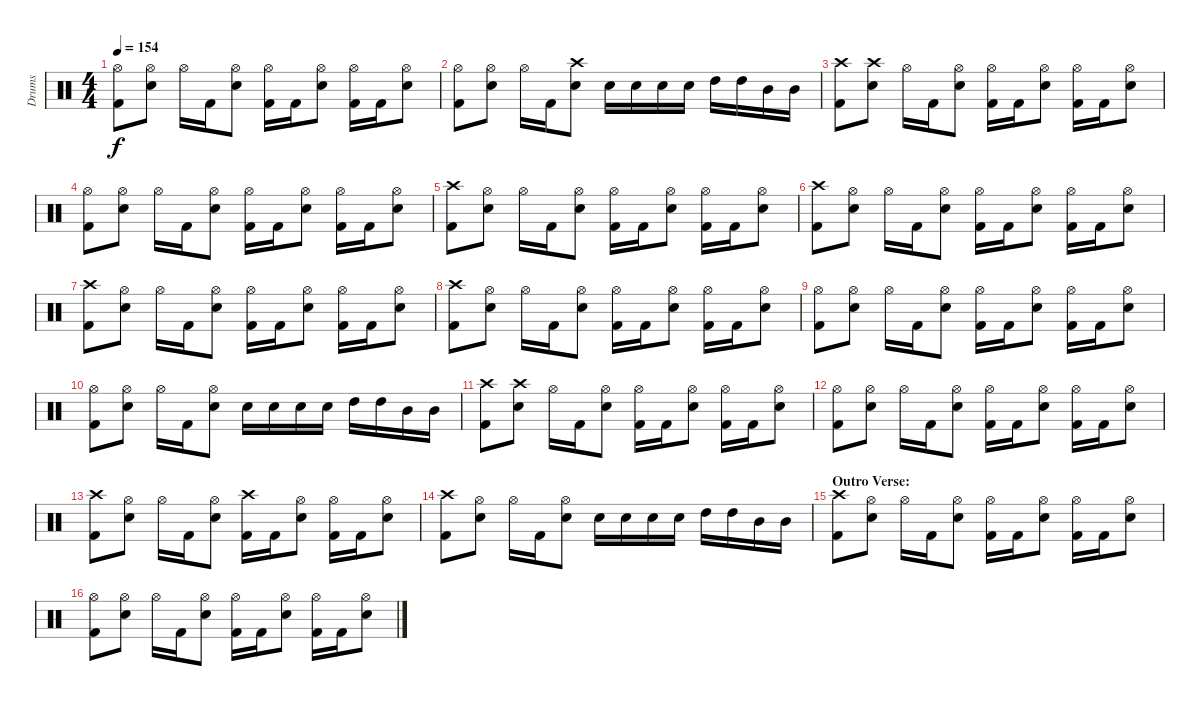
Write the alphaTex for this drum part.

\track ("Drums" "Drums") {instrument percussion}
\staff {score}
\articulation defaults
\ts (4 4)
\tempo 154
\clef neutral
\ks c
("Hi-Hat (open)" "Kick (hit) 2").8{dy f} ("Hi-Hat (open)" "Snare (hit) 2").8 "Hi-Hat (open)".16 "Kick (hit) 2".16 ("Hi-Hat (open)" "Snare (hit) 2").8 ("Hi-Hat (open)" "Kick (hit) 2").16 "Kick (hit) 2".16 ("Hi-Hat (open)" "Snare (hit) 2").8 ("Hi-Hat (open)" "Kick (hit) 2").16 "Kick (hit) 2".16 ("Hi-Hat (open)" "Snare (hit) 2").8 |
("Hi-Hat (open)" "Kick (hit) 2").8 ("Hi-Hat (open)" "Snare (hit) 2").8 "Hi-Hat (open)".16 "Kick (hit) 2".16 ("Crash high (hit)" "Snare (hit) 2").8 "Snare (hit) 2".16 "Snare (hit) 2".16 "Snare (hit) 2".16 "Snare (hit) 2".16 "High Tom (hit)".16 "High Tom (hit)".16 "Mid Tom (hit)".16 "Mid Tom (hit)".16 |
("Crash high (hit)" "Kick (hit) 2").8 ("Crash high (hit)" "Snare (hit) 2").8 "Hi-Hat (open)".16 "Kick (hit) 2".16 ("Hi-Hat (open)" "Snare (hit) 2").8 ("Hi-Hat (open)" "Kick (hit) 2").16 "Kick (hit) 2".16 ("Hi-Hat (open)" "Snare (hit) 2").8 ("Hi-Hat (open)" "Kick (hit) 2").16 "Kick (hit) 2".16 ("Hi-Hat (open)" "Snare (hit) 2").8 |
("Hi-Hat (open)" "Kick (hit) 2").8 ("Hi-Hat (open)" "Snare (hit) 2").8 "Hi-Hat (open)".16 "Kick (hit) 2".16 ("Hi-Hat (open)" "Snare (hit) 2").8 ("Hi-Hat (open)" "Kick (hit) 2").16 "Kick (hit) 2".16 ("Hi-Hat (open)" "Snare (hit) 2").8 ("Hi-Hat (open)" "Kick (hit) 2").16 "Kick (hit) 2".16 ("Hi-Hat (open)" "Snare (hit) 2").8 |
("Crash high (hit)" "Kick (hit) 2").8 ("Hi-Hat (open)" "Snare (hit) 2").8 "Hi-Hat (open)".16 "Kick (hit) 2".16 ("Hi-Hat (open)" "Snare (hit) 2").8 ("Hi-Hat (open)" "Kick (hit) 2").16 "Kick (hit) 2".16 ("Hi-Hat (open)" "Snare (hit) 2").8 ("Hi-Hat (open)" "Kick (hit) 2").16 "Kick (hit) 2".16 ("Hi-Hat (open)" "Snare (hit) 2").8 |
("Crash high (hit)" "Kick (hit) 2").8 ("Hi-Hat (open)" "Snare (hit) 2").8 "Hi-Hat (open)".16 "Kick (hit) 2".16 ("Hi-Hat (open)" "Snare (hit) 2").8 ("Hi-Hat (open)" "Kick (hit) 2").16 "Kick (hit) 2".16 ("Hi-Hat (open)" "Snare (hit) 2").8 ("Hi-Hat (open)" "Kick (hit) 2").16 "Kick (hit) 2".16 ("Hi-Hat (open)" "Snare (hit) 2").8 |
("Crash high (hit)" "Kick (hit) 2").8 ("Hi-Hat (open)" "Snare (hit) 2").8 "Hi-Hat (open)".16 "Kick (hit) 2".16 ("Hi-Hat (open)" "Snare (hit) 2").8 ("Hi-Hat (open)" "Kick (hit) 2").16 "Kick (hit) 2".16 ("Hi-Hat (open)" "Snare (hit) 2").8 ("Hi-Hat (open)" "Kick (hit) 2").16 "Kick (hit) 2".16 ("Hi-Hat (open)" "Snare (hit) 2").8 |
("Crash high (hit)" "Kick (hit) 2").8 ("Hi-Hat (open)" "Snare (hit) 2").8 "Hi-Hat (open)".16 "Kick (hit) 2".16 ("Hi-Hat (open)" "Snare (hit) 2").8 ("Hi-Hat (open)" "Kick (hit) 2").16 "Kick (hit) 2".16 ("Hi-Hat (open)" "Snare (hit) 2").8 ("Hi-Hat (open)" "Kick (hit) 2").16 "Kick (hit) 2".16 ("Hi-Hat (open)" "Snare (hit) 2").8 |
("Hi-Hat (open)" "Kick (hit) 2").8 ("Hi-Hat (open)" "Snare (hit) 2").8 "Hi-Hat (open)".16 "Kick (hit) 2".16 ("Hi-Hat (open)" "Snare (hit) 2").8 ("Hi-Hat (open)" "Kick (hit) 2").16 "Kick (hit) 2".16 ("Hi-Hat (open)" "Snare (hit) 2").8 ("Hi-Hat (open)" "Kick (hit) 2").16 "Kick (hit) 2".16 ("Hi-Hat (open)" "Snare (hit) 2").8 |
("Hi-Hat (open)" "Kick (hit) 2").8 ("Hi-Hat (open)" "Snare (hit) 2").8 "Hi-Hat (open)".16 "Kick (hit) 2".16 ("Hi-Hat (open)" "Snare (hit) 2").8 "Snare (hit) 2".16 "Snare (hit) 2".16 "Snare (hit) 2".16 "Snare (hit) 2".16 "High Tom (hit)".16 "High Tom (hit)".16 "Mid Tom (hit)".16 "Mid Tom (hit)".16 |
("Crash high (hit)" "Kick (hit) 2").8 ("Crash high (hit)" "Snare (hit) 2").8 "Hi-Hat (open)".16 "Kick (hit) 2".16 ("Hi-Hat (open)" "Snare (hit) 2").8 ("Hi-Hat (open)" "Kick (hit) 2").16 "Kick (hit) 2".16 ("Hi-Hat (open)" "Snare (hit) 2").8 ("Hi-Hat (open)" "Kick (hit) 2").16 "Kick (hit) 2".16 ("Hi-Hat (open)" "Snare (hit) 2").8 |
("Hi-Hat (open)" "Kick (hit) 2").8 ("Hi-Hat (open)" "Snare (hit) 2").8 "Hi-Hat (open)".16 "Kick (hit) 2".16 ("Hi-Hat (open)" "Snare (hit) 2").8 ("Hi-Hat (open)" "Kick (hit) 2").16 "Kick (hit) 2".16 ("Hi-Hat (open)" "Snare (hit) 2").8 ("Hi-Hat (open)" "Kick (hit) 2").16 "Kick (hit) 2".16 ("Hi-Hat (open)" "Snare (hit) 2").8 |
("Crash high (hit)" "Kick (hit) 2").8 ("Hi-Hat (open)" "Snare (hit) 2").8 "Hi-Hat (open)".16 "Kick (hit) 2".16 ("Hi-Hat (open)" "Snare (hit) 2").8 ("Crash high (hit)" "Kick (hit) 2").16 "Kick (hit) 2".16 ("Hi-Hat (open)" "Snare (hit) 2").8 ("Hi-Hat (open)" "Kick (hit) 2").16 "Kick (hit) 2".16 ("Hi-Hat (open)" "Snare (hit) 2").8 |
("Crash high (hit)" "Kick (hit) 2").8 ("Hi-Hat (open)" "Snare (hit) 2").8 "Hi-Hat (open)".16 "Kick (hit) 2".16 ("Hi-Hat (open)" "Snare (hit) 2").8 "Snare (hit) 2".16 "Snare (hit) 2".16 "Snare (hit) 2".16 "Snare (hit) 2".16 "High Tom (hit)".16 "High Tom (hit)".16 "Mid Tom (hit)".16 "Mid Tom (hit)".16 |
\section ("" "Outro Verse:")
("Crash high (hit)" "Kick (hit) 2").8 ("Hi-Hat (open)" "Snare (hit) 2").8 "Hi-Hat (open)".16 "Kick (hit) 2".16 ("Hi-Hat (open)" "Snare (hit) 2").8 ("Hi-Hat (open)" "Kick (hit) 2").16 "Kick (hit) 2".16 ("Hi-Hat (open)" "Snare (hit) 2").8 ("Hi-Hat (open)" "Kick (hit) 2").16 "Kick (hit) 2".16 ("Hi-Hat (open)" "Snare (hit) 2").8 |
("Hi-Hat (open)" "Kick (hit) 2").8 ("Hi-Hat (open)" "Snare (hit) 2").8 "Hi-Hat (open)".16 "Kick (hit) 2".16 ("Hi-Hat (open)" "Snare (hit) 2").8 ("Hi-Hat (open)" "Kick (hit) 2").16 "Kick (hit) 2".16 ("Hi-Hat (open)" "Snare (hit) 2").8 ("Hi-Hat (open)" "Kick (hit) 2").16 "Kick (hit) 2".16 ("Hi-Hat (open)" "Snare (hit) 2").8
